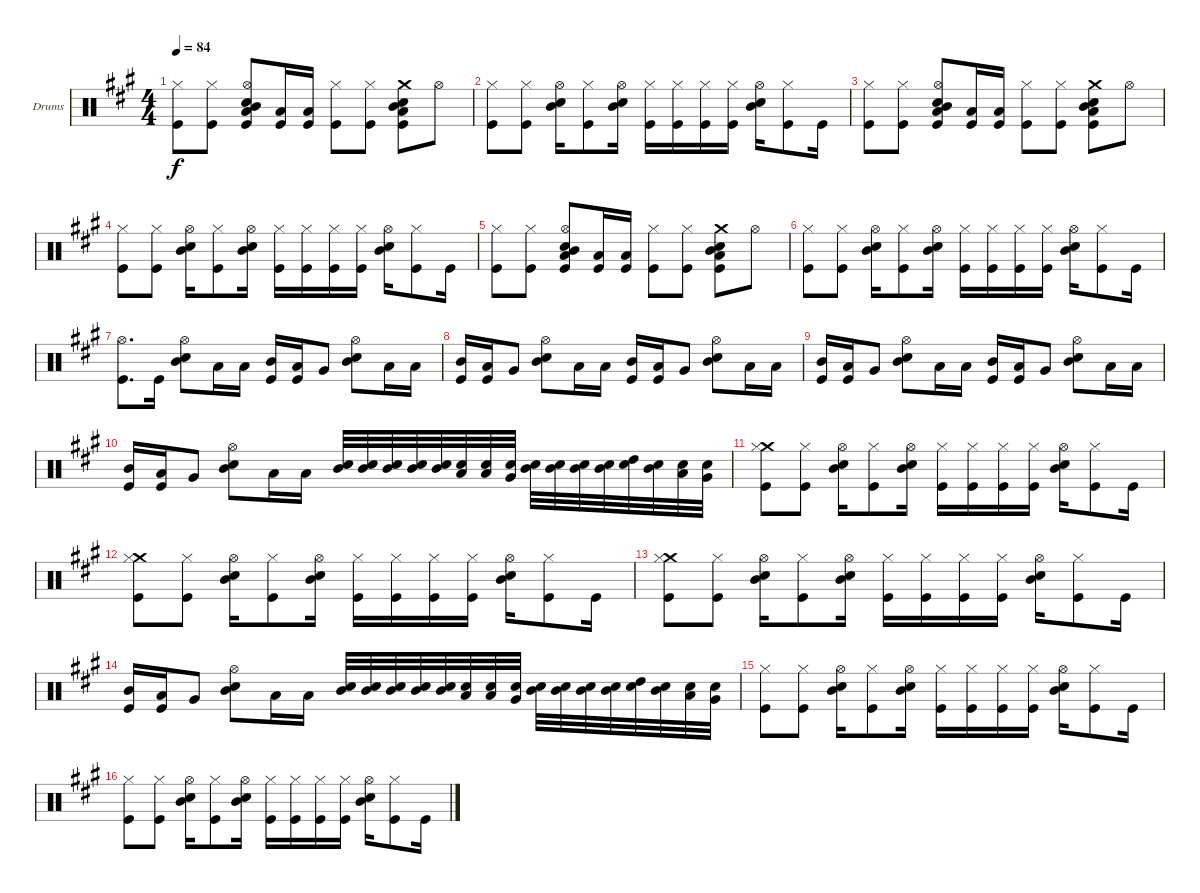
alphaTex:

\defaultSystemsLayout 4
\bracketExtendMode groupsimilarinstruments
\firstSystemTrackNameOrientation horizontal
\otherSystemsTrackNameOrientation horizontal
\track ("Drumkit" "Drums") {instrument percussion}
\staff {score}
\articulation defaults
\ts (4 4)
\tempo 84
\clef neutral
\ks a
("Hi-Hat (closed)" "Kick (hit)").8{dy f} ("Hi-Hat (closed)" "Kick (hit)").8 ("Snare (hit) 2" "Mid Tom (hit)" "Hi-Hat (open)" "Low Tom (hit)" "Kick (hit)").8 ("Low Tom (hit)" "Kick (hit)").16 ("Low Tom (hit)" "Kick (hit)").16 ("Hi-Hat (closed)" "Kick (hit)").8 ("Hi-Hat (closed)" "Kick (hit)").8 ("Snare (hit) 2" "Mid Tom (hit)" "Crash medium (hit)" "Low Tom (hit)" "Kick (hit)").8 "Hi-Hat (open)".8 |
("Kick (hit)" "Hi-Hat (closed)").8 ("Kick (hit)" "Hi-Hat (closed)").8 ("Snare (hit) 2" "Mid Tom (hit)" "Hi-Hat (open)").16 ("Kick (hit)" "Hi-Hat (closed)").8 ("Snare (hit) 2" "Mid Tom (hit)" "Hi-Hat (open)").16 ("Kick (hit)" "Hi-Hat (closed)").16 ("Kick (hit)" "Hi-Hat (closed)").16 ("Kick (hit)" "Hi-Hat (closed)").16 ("Kick (hit)" "Hi-Hat (closed)").16 ("Snare (hit) 2" "Mid Tom (hit)" "Hi-Hat (open)").16 ("Kick (hit)" "Hi-Hat (closed)").8 "Kick (hit)".16 |
("Hi-Hat (closed)" "Kick (hit)").8 ("Hi-Hat (closed)" "Kick (hit)").8 ("Snare (hit) 2" "Mid Tom (hit)" "Hi-Hat (open)" "Low Tom (hit)" "Kick (hit)").8 ("Low Tom (hit)" "Kick (hit)").16 ("Low Tom (hit)" "Kick (hit)").16 ("Hi-Hat (closed)" "Kick (hit)").8 ("Hi-Hat (closed)" "Kick (hit)").8 ("Snare (hit) 2" "Mid Tom (hit)" "Crash medium (hit)" "Low Tom (hit)" "Kick (hit)").8 "Hi-Hat (open)".8 |
("Kick (hit)" "Hi-Hat (closed)").8 ("Kick (hit)" "Hi-Hat (closed)").8 ("Snare (hit) 2" "Mid Tom (hit)" "Hi-Hat (open)").16 ("Kick (hit)" "Hi-Hat (closed)").8 ("Snare (hit) 2" "Mid Tom (hit)" "Hi-Hat (open)").16 ("Kick (hit)" "Hi-Hat (closed)").16 ("Kick (hit)" "Hi-Hat (closed)").16 ("Kick (hit)" "Hi-Hat (closed)").16 ("Kick (hit)" "Hi-Hat (closed)").16 ("Snare (hit) 2" "Mid Tom (hit)" "Hi-Hat (open)").16 ("Kick (hit)" "Hi-Hat (closed)").8 "Kick (hit)".16 |
("Hi-Hat (closed)" "Kick (hit)").8 ("Hi-Hat (closed)" "Kick (hit)").8 ("Snare (hit) 2" "Mid Tom (hit)" "Hi-Hat (open)" "Low Tom (hit)" "Kick (hit)").8 ("Low Tom (hit)" "Kick (hit)").16 ("Low Tom (hit)" "Kick (hit)").16 ("Hi-Hat (closed)" "Kick (hit)").8 ("Hi-Hat (closed)" "Kick (hit)").8 ("Snare (hit) 2" "Mid Tom (hit)" "Crash medium (hit)" "Low Tom (hit)" "Kick (hit)").8 "Hi-Hat (open)".8 |
("Kick (hit)" "Hi-Hat (closed)").8 ("Kick (hit)" "Hi-Hat (closed)").8 ("Snare (hit) 2" "Mid Tom (hit)" "Hi-Hat (open)").16 ("Kick (hit)" "Hi-Hat (closed)").8 ("Snare (hit) 2" "Mid Tom (hit)" "Hi-Hat (open)").16 ("Kick (hit)" "Hi-Hat (closed)").16 ("Kick (hit)" "Hi-Hat (closed)").16 ("Kick (hit)" "Hi-Hat (closed)").16 ("Kick (hit)" "Hi-Hat (closed)").16 ("Snare (hit) 2" "Mid Tom (hit)" "Hi-Hat (open)").16 ("Kick (hit)" "Hi-Hat (closed)").8 "Kick (hit)".16 |
("Hi-Hat (open)" "Kick (hit)").8{d} "Kick (hit)".16 ("Snare (hit) 2" "Mid Tom (hit)" "Hi-Hat (open)").8 "Low Tom (hit)".16 "Low Tom (hit)".16 ("Mid Tom (hit)" "Kick (hit)").16 ("Low Tom (hit)" "Kick (hit)").16 "Very Low Tom (hit)".8 ("Snare (hit) 2" "Mid Tom (hit)" "Hi-Hat (open)").8 "Low Tom (hit)".16 "Low Tom (hit)".16 |
("Mid Tom (hit)" "Kick (hit)").16 ("Low Tom (hit)" "Kick (hit)").16 "Very Low Tom (hit)".8 ("Snare (hit) 2" "Mid Tom (hit)" "Hi-Hat (open)").8 "Low Tom (hit)".16 "Low Tom (hit)".16 ("Mid Tom (hit)" "Kick (hit)").16 ("Low Tom (hit)" "Kick (hit)").16 "Very Low Tom (hit)".8 ("Snare (hit) 2" "Mid Tom (hit)" "Hi-Hat (open)").8 "Low Tom (hit)".16 "Low Tom (hit)".16 |
("Mid Tom (hit)" "Kick (hit)").16 ("Low Tom (hit)" "Kick (hit)").16 "Very Low Tom (hit)".8 ("Snare (hit) 2" "Mid Tom (hit)" "Hi-Hat (open)").8 "Low Tom (hit)".16 "Low Tom (hit)".16 ("Mid Tom (hit)" "Kick (hit)").16 ("Low Tom (hit)" "Kick (hit)").16 "Very Low Tom (hit)".8 ("Snare (hit) 2" "Mid Tom (hit)" "Hi-Hat (open)").8 "Low Tom (hit)".16 "Low Tom (hit)".16 |
("Mid Tom (hit)" "Kick (hit)").16 ("Low Tom (hit)" "Kick (hit)").16 "Very Low Tom (hit)".8 ("Snare (hit) 2" "Mid Tom (hit)" "Hi-Hat (open)").8 "Low Tom (hit)".16 "Low Tom (hit)".16 ("Mid Tom (hit)" "Snare (hit) 2").32 ("Mid Tom (hit)" "Snare (hit) 2").32 ("Mid Tom (hit)" "Snare (hit) 2").32 ("Mid Tom (hit)" "Snare (hit) 2").32 ("Mid Tom (hit)" "Snare (hit) 2").32 ("Low Tom (hit)" "Snare (hit) 2").32 ("Low Tom (hit)" "Snare (hit) 2").32 ("Very Low Tom (hit)" "Snare (hit) 2").32 ("Mid Tom (hit)" "Snare (hit) 2").32 ("Mid Tom (hit)" "Snare (hit) 2").32 ("Mid Tom (hit)" "Snare (hit) 2").32 ("Mid Tom (hit)" "Snare (hit) 2").32 ("High Tom (hit)" "Snare (hit) 2").32 ("Mid Tom (hit)" "Snare (hit) 2").32 ("Low Tom (hit)" "Snare (hit) 2").32 ("Very Low Tom (hit)" "Snare (hit) 2").32 |
("Crash medium (hit)" "Kick (hit)" "Hi-Hat (closed)").8 ("Kick (hit)" "Hi-Hat (closed)").8 ("Snare (hit) 2" "Mid Tom (hit)" "Hi-Hat (open)").16 ("Kick (hit)" "Hi-Hat (closed)").8 ("Snare (hit) 2" "Mid Tom (hit)" "Hi-Hat (open)").16 ("Kick (hit)" "Hi-Hat (closed)").16 ("Kick (hit)" "Hi-Hat (closed)").16 ("Kick (hit)" "Hi-Hat (closed)").16 ("Kick (hit)" "Hi-Hat (closed)").16 ("Snare (hit) 2" "Mid Tom (hit)" "Hi-Hat (open)").16 ("Kick (hit)" "Hi-Hat (closed)").8 "Kick (hit)".16 |
("Crash medium (hit)" "Kick (hit)" "Hi-Hat (closed)").8 ("Kick (hit)" "Hi-Hat (closed)").8 ("Snare (hit) 2" "Mid Tom (hit)" "Hi-Hat (open)").16 ("Kick (hit)" "Hi-Hat (closed)").8 ("Snare (hit) 2" "Mid Tom (hit)" "Hi-Hat (open)").16 ("Kick (hit)" "Hi-Hat (closed)").16 ("Kick (hit)" "Hi-Hat (closed)").16 ("Kick (hit)" "Hi-Hat (closed)").16 ("Kick (hit)" "Hi-Hat (closed)").16 ("Snare (hit) 2" "Mid Tom (hit)" "Hi-Hat (open)").16 ("Kick (hit)" "Hi-Hat (closed)").8 "Kick (hit)".16 |
("Crash medium (hit)" "Kick (hit)" "Hi-Hat (closed)").8 ("Kick (hit)" "Hi-Hat (closed)").8 ("Snare (hit) 2" "Mid Tom (hit)" "Hi-Hat (open)").16 ("Kick (hit)" "Hi-Hat (closed)").8 ("Snare (hit) 2" "Mid Tom (hit)" "Hi-Hat (open)").16 ("Kick (hit)" "Hi-Hat (closed)").16 ("Kick (hit)" "Hi-Hat (closed)").16 ("Kick (hit)" "Hi-Hat (closed)").16 ("Kick (hit)" "Hi-Hat (closed)").16 ("Snare (hit) 2" "Mid Tom (hit)" "Hi-Hat (open)").16 ("Kick (hit)" "Hi-Hat (closed)").8 "Kick (hit)".16 |
("Mid Tom (hit)" "Kick (hit)").16 ("Low Tom (hit)" "Kick (hit)").16 "Very Low Tom (hit)".8 ("Snare (hit) 2" "Mid Tom (hit)" "Hi-Hat (open)").8 "Low Tom (hit)".16 "Low Tom (hit)".16 ("Mid Tom (hit)" "Snare (hit) 2").32 ("Mid Tom (hit)" "Snare (hit) 2").32 ("Mid Tom (hit)" "Snare (hit) 2").32 ("Mid Tom (hit)" "Snare (hit) 2").32 ("Mid Tom (hit)" "Snare (hit) 2").32 ("Low Tom (hit)" "Snare (hit) 2").32 ("Low Tom (hit)" "Snare (hit) 2").32 ("Very Low Tom (hit)" "Snare (hit) 2").32 ("Mid Tom (hit)" "Snare (hit) 2").32 ("Mid Tom (hit)" "Snare (hit) 2").32 ("Mid Tom (hit)" "Snare (hit) 2").32 ("Mid Tom (hit)" "Snare (hit) 2").32 ("High Tom (hit)" "Snare (hit) 2").32 ("Mid Tom (hit)" "Snare (hit) 2").32 ("Low Tom (hit)" "Snare (hit) 2").32 ("Very Low Tom (hit)" "Snare (hit) 2").32 |
("Kick (hit)" "Hi-Hat (closed)").8 ("Kick (hit)" "Hi-Hat (closed)").8 ("Snare (hit) 2" "Mid Tom (hit)" "Hi-Hat (open)").16 ("Kick (hit)" "Hi-Hat (closed)").8 ("Snare (hit) 2" "Mid Tom (hit)" "Hi-Hat (open)").16 ("Kick (hit)" "Hi-Hat (closed)").16 ("Kick (hit)" "Hi-Hat (closed)").16 ("Kick (hit)" "Hi-Hat (closed)").16 ("Kick (hit)" "Hi-Hat (closed)").16 ("Snare (hit) 2" "Mid Tom (hit)" "Hi-Hat (open)").16 ("Kick (hit)" "Hi-Hat (closed)").8 "Kick (hit)".16 |
("Kick (hit)" "Hi-Hat (closed)").8 ("Kick (hit)" "Hi-Hat (closed)").8 ("Snare (hit) 2" "Mid Tom (hit)" "Hi-Hat (open)").16 ("Kick (hit)" "Hi-Hat (closed)").8 ("Snare (hit) 2" "Mid Tom (hit)" "Hi-Hat (open)").16 ("Kick (hit)" "Hi-Hat (closed)").16 ("Kick (hit)" "Hi-Hat (closed)").16 ("Kick (hit)" "Hi-Hat (closed)").16 ("Kick (hit)" "Hi-Hat (closed)").16 ("Snare (hit) 2" "Mid Tom (hit)" "Hi-Hat (open)").16 ("Kick (hit)" "Hi-Hat (closed)").8 "Kick (hit)".16
